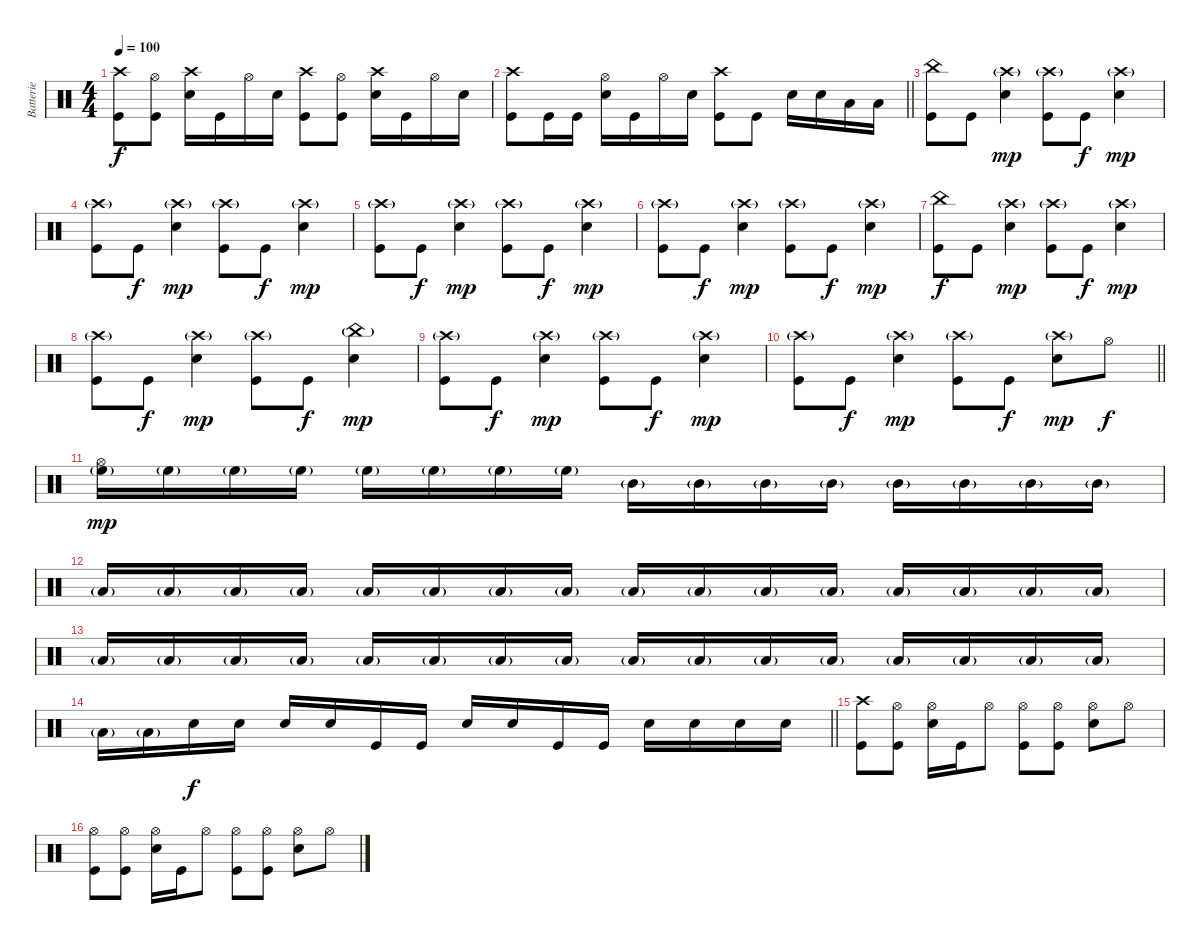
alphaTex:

\track ("Batterie" "Batterie") {instrument percussion}
\staff {score}
\articulation defaults
\ts (4 4)
\tempo 100
\clef neutral
\ks c
("Crash high (hit)" "Kick (hit)").8{dy f} ("Hi-Hat (open)" "Kick (hit)").8 ("Crash high (hit)" "Electric Snare (hit)").16 "Kick (hit)".16 "Hi-Hat (open)".16 "Electric Snare (hit)".16 ("Crash high (hit)" "Kick (hit)").8 ("Hi-Hat (open)" "Kick (hit)").8 ("Crash high (hit)" "Electric Snare (hit)").16 "Kick (hit)".16 "Hi-Hat (open)".16 "Electric Snare (hit)".16 |
\barLineRight lightlight
("Crash high (hit)" "Kick (hit)").8 "Kick (hit)".16 "Kick (hit)".16 ("Hi-Hat (open)" "Electric Snare (hit)").16 "Kick (hit)".16 "Hi-Hat (open)".16 "Electric Snare (hit)".16 ("Crash high (hit)" "Kick (hit)").8 "Kick (hit)".8 "Electric Snare (hit)".16 "Electric Snare (hit)".16 "Low Tom (hit)".16 "Low Tom (hit)".16 |
("China (hit)" "Kick (hit)").8 "Kick (hit)".8 ("Crash high (hit)"{g} "Electric Snare (hit)").4{dy mp} ("Crash high (hit)"{g} "Kick (hit)").8 "Kick (hit)".8{dy f} ("Crash high (hit)"{g} "Electric Snare (hit)").4{dy mp} |
("Crash high (hit)"{g} "Kick (hit)").8 "Kick (hit)".8{dy f} ("Crash high (hit)"{g} "Electric Snare (hit)").4{dy mp} ("Crash high (hit)"{g} "Kick (hit)").8 "Kick (hit)".8{dy f} ("Crash high (hit)"{g} "Electric Snare (hit)").4{dy mp} |
("Crash high (hit)"{g} "Kick (hit)").8 "Kick (hit)".8{dy f} ("Crash high (hit)"{g} "Electric Snare (hit)").4{dy mp} ("Crash high (hit)"{g} "Kick (hit)").8 "Kick (hit)".8{dy f} ("Crash high (hit)"{g} "Electric Snare (hit)").4{dy mp} |
("Crash high (hit)"{g} "Kick (hit)").8 "Kick (hit)".8{dy f} ("Crash high (hit)"{g} "Electric Snare (hit)").4{dy mp} ("Crash high (hit)"{g} "Kick (hit)").8 "Kick (hit)".8{dy f} ("Crash high (hit)"{g} "Electric Snare (hit)").4{dy mp} |
("China (hit)" "Kick (hit)").8{dy f} "Kick (hit)".8 ("Crash high (hit)"{g} "Electric Snare (hit)").4{dy mp} ("Crash high (hit)"{g} "Kick (hit)").8 "Kick (hit)".8{dy f} ("Crash high (hit)"{g} "Electric Snare (hit)").4{dy mp} |
("Crash high (hit)"{g} "Kick (hit)").8 "Kick (hit)".8{dy f} ("Crash high (hit)"{g} "Electric Snare (hit)").4{dy mp} ("Crash high (hit)"{g} "Kick (hit)").8 "Kick (hit)".8{dy f} ("China (hit)"{g} "Electric Snare (hit)").4{dy mp} |
("Crash high (hit)"{g} "Kick (hit)").8 "Kick (hit)".8{dy f} ("Crash high (hit)"{g} "Electric Snare (hit)").4{dy mp} ("Crash high (hit)"{g} "Kick (hit)").8 "Kick (hit)".8{dy f} ("Crash high (hit)"{g} "Electric Snare (hit)").4{dy mp} |
\barLineRight lightlight
("Crash high (hit)"{g} "Kick (hit)").8 "Kick (hit)".8{dy f} ("Crash high (hit)"{g} "Electric Snare (hit)").4{dy mp} ("Crash high (hit)"{g} "Kick (hit)").8 "Kick (hit)".8{dy f} ("Crash high (hit)"{g} "Electric Snare (hit)").8{dy mp} "Hi-Hat (open)".8{dy f} |
("Hi-Hat (open)" "High Floor Tom (hit)"{g}).16{dy mp} "High Floor Tom (hit)"{g}.16 "High Floor Tom (hit)"{g}.16 "High Floor Tom (hit)"{g}.16 "High Floor Tom (hit)"{g}.16 "High Floor Tom (hit)"{g}.16 "High Floor Tom (hit)"{g}.16 "High Floor Tom (hit)"{g}.16 "Mid Tom (hit)"{g}.16 "Mid Tom (hit)"{g}.16 "Mid Tom (hit)"{g}.16 "Mid Tom (hit)"{g}.16 "Mid Tom (hit)"{g}.16 "Mid Tom (hit)"{g}.16 "Mid Tom (hit)"{g}.16 "Mid Tom (hit)"{g}.16 |
"Low Tom (hit)"{g}.16 "Low Tom (hit)"{g}.16 "Low Tom (hit)"{g}.16 "Low Tom (hit)"{g}.16 "Low Tom (hit)"{g}.16 "Low Tom (hit)"{g}.16 "Low Tom (hit)"{g}.16 "Low Tom (hit)"{g}.16 "Low Floor Tom (hit)"{g}.16 "Low Floor Tom (hit)"{g}.16 "Low Floor Tom (hit)"{g}.16 "Low Floor Tom (hit)"{g}.16 "Low Floor Tom (hit)"{g}.16 "Low Floor Tom (hit)"{g}.16 "Low Floor Tom (hit)"{g}.16 "Low Floor Tom (hit)"{g}.16 |
"Low Floor Tom (hit)"{g}.16 "Low Floor Tom (hit)"{g}.16 "Low Floor Tom (hit)"{g}.16 "Low Floor Tom (hit)"{g}.16 "Low Floor Tom (hit)"{g}.16 "Low Floor Tom (hit)"{g}.16 "Low Floor Tom (hit)"{g}.16 "Low Floor Tom (hit)"{g}.16 "Low Floor Tom (hit)"{g}.16 "Low Floor Tom (hit)"{g}.16 "Low Floor Tom (hit)"{g}.16 "Low Floor Tom (hit)"{g}.16 "Low Floor Tom (hit)"{g}.16 "Low Floor Tom (hit)"{g}.16 "Low Floor Tom (hit)"{g}.16 "Low Floor Tom (hit)"{g}.16 |
\barLineRight lightlight "Low Floor Tom (hit)"{g}.16 "Low Floor Tom (hit)"{g}.16 "Electric Snare (hit)".16{dy f} "Electric Snare (hit)".16 "Electric Snare (hit)".16 "Electric Snare (hit)".16 "Kick (hit)".16 "Kick (hit)".16 "Electric Snare (hit)".16 "Electric Snare (hit)".16 "Kick (hit)".16 "Kick (hit)".16 "Electric Snare (hit)".16 "Electric Snare (hit)".16 "Electric Snare (hit)".16 "Electric Snare (hit)".16
|
("Crash high (hit)" "Kick (hit)").8 ("Hi-Hat (open)" "Kick (hit)").8 ("Hi-Hat (open)" "Electric Snare (hit)").16 "Kick (hit)".16 "Hi-Hat (open)".8 ("Hi-Hat (open)" "Kick (hit)").8 ("Hi-Hat (open)" "Kick (hit)").8 ("Hi-Hat (open)" "Electric Snare (hit)").8 "Hi-Hat (open)".8 |
("Hi-Hat (open)" "Kick (hit)").8 ("Hi-Hat (open)" "Kick (hit)").8 ("Hi-Hat (open)" "Electric Snare (hit)").16 "Kick (hit)".16 "Hi-Hat (open)".8 ("Hi-Hat (open)" "Kick (hit)").8 ("Hi-Hat (open)" "Kick (hit)").8 ("Hi-Hat (open)" "Electric Snare (hit)").8 "Hi-Hat (open)".8
